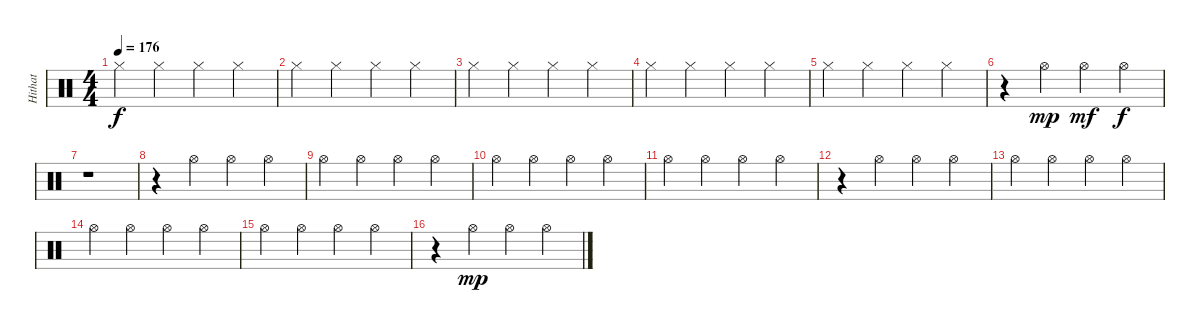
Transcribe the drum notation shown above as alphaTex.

\track ("Hithat" "Hithat") {instrument percussion}
\staff {score}
\articulation defaults
\ts (4 4)
\tempo 176
\clef neutral
\ks c "Hi-Hat (closed)".4{dy f} "Hi-Hat (closed)".4 "Hi-Hat (closed)".4 "Hi-Hat (closed)".4
|
"Hi-Hat (closed)".4 "Hi-Hat (closed)".4 "Hi-Hat (closed)".4 "Hi-Hat (closed)".4 |
"Hi-Hat (closed)".4 "Hi-Hat (closed)".4 "Hi-Hat (closed)".4 "Hi-Hat (closed)".4 |
"Hi-Hat (closed)".4 "Hi-Hat (closed)".4 "Hi-Hat (closed)".4 "Hi-Hat (closed)".4 |
"Hi-Hat (closed)".4 "Hi-Hat (closed)".4 "Hi-Hat (closed)".4 "Hi-Hat (closed)".4 |
r.4 "Hi-Hat (open)".4{dy mp} "Hi-Hat (open)".4{dy mf} "Hi-Hat (open)".4{dy f} |
r.1 |
r.4 "Hi-Hat (open)".4 "Hi-Hat (open)".4 "Hi-Hat (open)".4 |
"Hi-Hat (open)".4 "Hi-Hat (open)".4 "Hi-Hat (open)".4 "Hi-Hat (open)".4 |
"Hi-Hat (open)".4 "Hi-Hat (open)".4 "Hi-Hat (open)".4 "Hi-Hat (open)".4 |
"Hi-Hat (open)".4 "Hi-Hat (open)".4 "Hi-Hat (open)".4 "Hi-Hat (open)".4 |
r.4 "Hi-Hat (open)".4 "Hi-Hat (open)".4 "Hi-Hat (open)".4 |
"Hi-Hat (open)".4 "Hi-Hat (open)".4 "Hi-Hat (open)".4 "Hi-Hat (open)".4 |
"Hi-Hat (open)".4 "Hi-Hat (open)".4 "Hi-Hat (open)".4 "Hi-Hat (open)".4 |
"Hi-Hat (open)".4 "Hi-Hat (open)".4 "Hi-Hat (open)".4 "Hi-Hat (open)".4 |
r.4 "Hi-Hat (open)".4{dy mp} "Hi-Hat (open)".4 "Hi-Hat (open)".4
